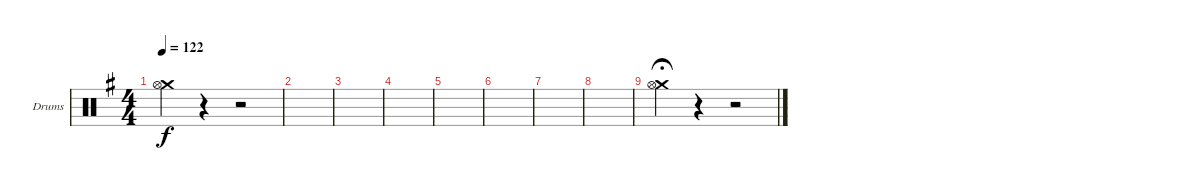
\defaultSystemsLayout 4
\bracketExtendMode groupsimilarinstruments
\firstSystemTrackNameOrientation horizontal
\otherSystemsTrackNameOrientation horizontal
\track ("Drumkit" "Drums") {instrument percussion}
\staff {score}
\articulation defaults
\ts (4 4)
\tempo 122
\clef neutral
\ks g
("Crash medium (hit)" "Hi-Hat (open)").4{dy f} r.4 r.2 |
|
|
|
|
|
|
|
("Crash medium (hit)" "Hi-Hat (open)").4{fermata (medium 0.5)} r.4 r.2
